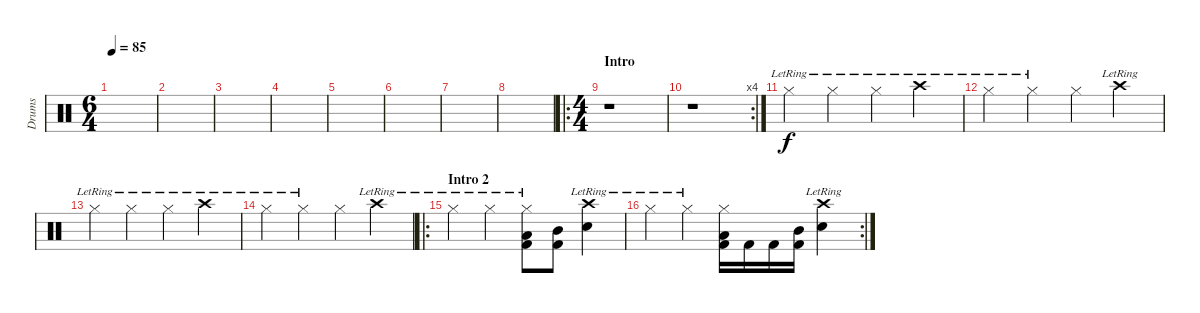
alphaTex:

\track ("Drums" "Drums") {instrument percussion}
\staff {score}
\articulation defaults
\ts (6 4)
\tempo 85
\clef neutral
\ks c
|
|
|
|
|
|
|
|
\ro
\ts (4 4)
\section ("" "Intro")
r.1 |
\rc 4
r.1 |
"Hi-Hat (closed)"{lr}.4 "Hi-Hat (closed)"{lr}.4 "Hi-Hat (closed)"{lr}.4 "Crash high (hit)"{lr}.4 |
"Hi-Hat (closed)"{lr}.4 "Hi-Hat (closed)"{lr}.4 "Hi-Hat (closed)".4 "Crash high (hit)"{lr}.4 |
"Hi-Hat (closed)"{lr}.4 "Hi-Hat (closed)"{lr}.4 "Hi-Hat (closed)"{lr}.4 "Crash high (hit)"{lr}.4 |
"Hi-Hat (closed)"{lr}.4 "Hi-Hat (closed)"{lr}.4 "Hi-Hat (closed)".4 "Crash high (hit)"{lr}.4 |
\ro
\section ("" "Intro 2")
"Hi-Hat (closed)"{lr}.4 "Hi-Hat (closed)"{lr}.4 ("Hi-Hat (closed)"{lr} "Low Floor Tom (hit)" "Kick (hit) 2").8 ("Mid Tom (hit)" "Kick (hit) 2").8 ("Crash high (hit)"{lr} "Snare (hit) 2").4 |
\rc 2 "Hi-Hat (closed)"{lr}.4 "Hi-Hat (closed)"{lr}.4
("Hi-Hat (closed)" "Low Floor Tom (hit)" "Kick (hit) 2").16 "Kick (hit) 2".16 "Kick (hit) 2".16 ("Mid Tom (hit)" "Kick (hit) 2").16 ("Crash high (hit)"{lr} "Snare (hit) 2").4
